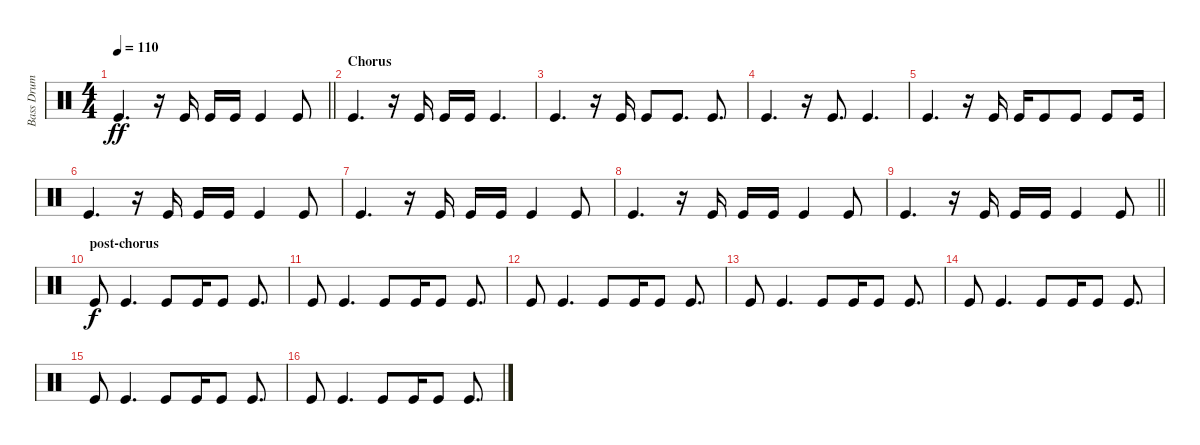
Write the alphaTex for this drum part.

\track ("Bass Drum" "Bass Drum") {instrument percussion}
\staff {score}
\articulation defaults
\ts (4 4)
\tempo 110
\clef neutral
\barLineRight lightlight
\ks c "Kick (hit)".4{d dy ff}
r.16 "Kick (hit)".16 "Kick (hit)".16 "Kick (hit)".16 "Kick (hit)".4 "Kick (hit)".8 |
\section ("" "Chorus")
"Kick (hit)".4{d} r.16 "Kick (hit)".16 "Kick (hit)".16 "Kick (hit)".16 "Kick (hit)".4{d} |
"Kick (hit)".4{d} r.16 "Kick (hit)".16 "Kick (hit)".8 "Kick (hit)".8{d} "Kick (hit)".8{d} |
"Kick (hit)".4{d} r.16 "Kick (hit)".8{d} "Kick (hit)".4{d} |
"Kick (hit)".4{d} r.16 "Kick (hit)".16 "Kick (hit)".16 "Kick (hit)".8 "Kick (hit)".8 "Kick (hit)".8 "Kick (hit)".16 |
"Kick (hit)".4{d} r.16 "Kick (hit)".16 "Kick (hit)".16 "Kick (hit)".16 "Kick (hit)".4 "Kick (hit)".8 |
"Kick (hit)".4{d} r.16 "Kick (hit)".16 "Kick (hit)".16 "Kick (hit)".16 "Kick (hit)".4 "Kick (hit)".8 |
"Kick (hit)".4{d} r.16 "Kick (hit)".16 "Kick (hit)".16 "Kick (hit)".16 "Kick (hit)".4 "Kick (hit)".8 |
\barLineRight lightlight "Kick (hit)".4{d}
r.16 "Kick (hit)".16 "Kick (hit)".16 "Kick (hit)".16 "Kick (hit)".4 "Kick (hit)".8 |
\section ("" "post-chorus")
"Kick (hit)".8{dy f} "Kick (hit)".4{d} "Kick (hit)".8 "Kick (hit)".16 "Kick (hit)".8 "Kick (hit)".8{d} |
"Kick (hit)".8 "Kick (hit)".4{d} "Kick (hit)".8 "Kick (hit)".16 "Kick (hit)".8 "Kick (hit)".8{d} |
"Kick (hit)".8 "Kick (hit)".4{d} "Kick (hit)".8 "Kick (hit)".16 "Kick (hit)".8 "Kick (hit)".8{d} |
"Kick (hit)".8 "Kick (hit)".4{d} "Kick (hit)".8 "Kick (hit)".16 "Kick (hit)".8 "Kick (hit)".8{d} |
"Kick (hit)".8 "Kick (hit)".4{d} "Kick (hit)".8 "Kick (hit)".16 "Kick (hit)".8 "Kick (hit)".8{d} |
"Kick (hit)".8 "Kick (hit)".4{d} "Kick (hit)".8 "Kick (hit)".16 "Kick (hit)".8 "Kick (hit)".8{d} |
"Kick (hit)".8 "Kick (hit)".4{d} "Kick (hit)".8 "Kick (hit)".16 "Kick (hit)".8 "Kick (hit)".8{d}
